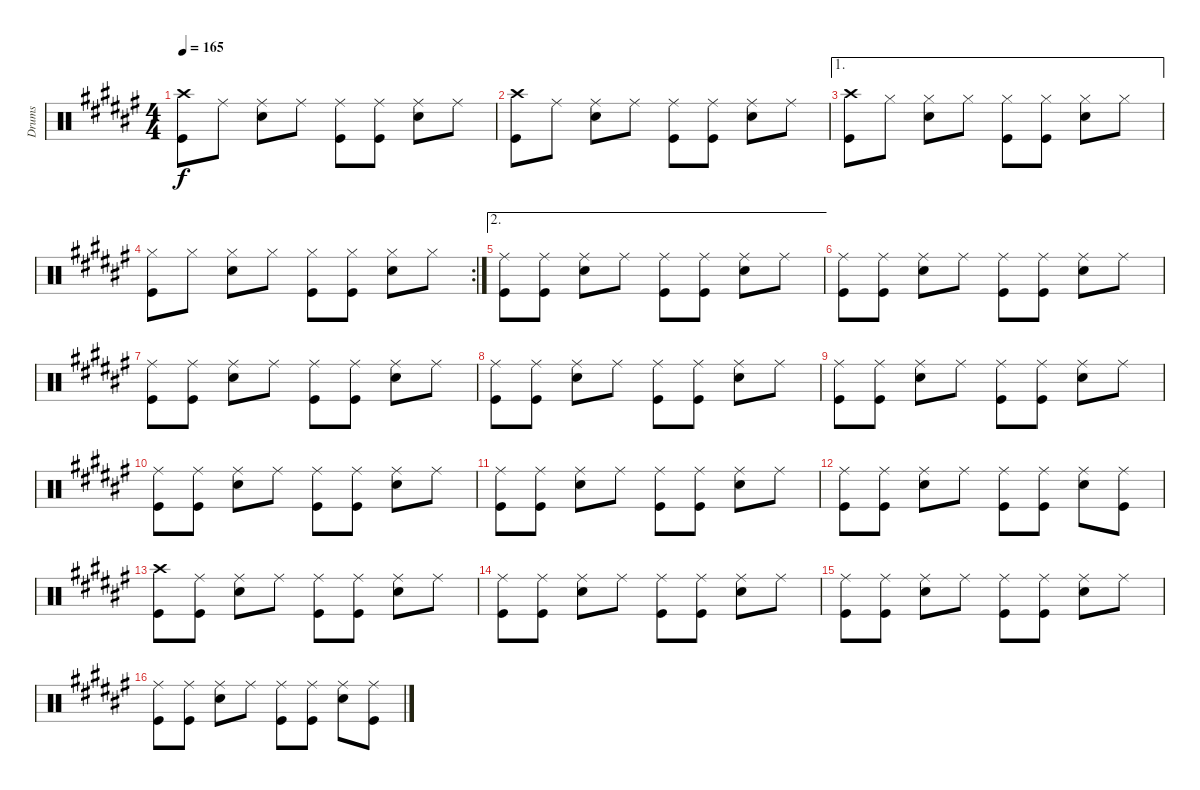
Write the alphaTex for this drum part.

\track ("Drums" "Drums") {instrument percussion}
\staff {score}
\articulation defaults
\ts (4 4)
\tempo 165
\clef neutral
\ks f#
("Crash high (hit)" "Kick (hit)").8{dy f} "Ride (middle)".8 ("Ride (middle)" "Snare (hit) 2").8 "Ride (middle)".8 ("Ride (middle)" "Kick (hit)").8 ("Ride (middle)" "Kick (hit)").8 ("Ride (middle)" "Snare (hit) 2").8 "Ride (middle)".8 |
("Crash high (hit)" "Kick (hit)").8 "Ride (middle)".8 ("Ride (middle)" "Snare (hit) 2").8 "Ride (middle)".8 ("Ride (middle)" "Kick (hit)").8 ("Ride (middle)" "Kick (hit)").8 ("Ride (middle)" "Snare (hit) 2").8 "Ride (middle)".8 |
\ae 1
("Crash high (hit)" "Kick (hit)").8 "Hi-Hat (closed)".8 ("Hi-Hat (closed)" "Snare (hit) 2").8 "Hi-Hat (closed)".8 ("Hi-Hat (closed)" "Kick (hit)").8 ("Hi-Hat (closed)" "Kick (hit)").8 ("Hi-Hat (closed)" "Snare (hit) 2").8 "Hi-Hat (closed)".8 |
\rc 2
("Hi-Hat (closed)" "Kick (hit)").8 "Hi-Hat (closed)".8 ("Hi-Hat (closed)" "Snare (hit) 2").8 "Hi-Hat (closed)".8 ("Hi-Hat (closed)" "Kick (hit)").8 ("Hi-Hat (closed)" "Kick (hit)").8 ("Hi-Hat (closed)" "Snare (hit) 2").8 "Hi-Hat (closed)".8 |
\ae 2
("Ride (middle)" "Kick (hit)").8 ("Ride (middle)" "Kick (hit)").8 ("Ride (middle)" "Snare (hit) 2").8 "Ride (middle)".8 ("Ride (middle)" "Kick (hit)").8 ("Ride (middle)" "Kick (hit)").8 ("Ride (middle)" "Snare (hit) 2").8 "Ride (middle)".8 |
("Ride (middle)" "Kick (hit)").8 ("Ride (middle)" "Kick (hit)").8 ("Ride (middle)" "Snare (hit) 2").8 "Ride (middle)".8 ("Ride (middle)" "Kick (hit)").8 ("Ride (middle)" "Kick (hit)").8 ("Ride (middle)" "Snare (hit) 2").8 "Ride (middle)".8 |
("Ride (middle)" "Kick (hit)").8 ("Ride (middle)" "Kick (hit)").8 ("Ride (middle)" "Snare (hit) 2").8 "Ride (middle)".8 ("Ride (middle)" "Kick (hit)").8 ("Ride (middle)" "Kick (hit)").8 ("Ride (middle)" "Snare (hit) 2").8 "Ride (middle)".8 |
("Ride (middle)" "Kick (hit)").8 ("Ride (middle)" "Kick (hit)").8 ("Ride (middle)" "Snare (hit) 2").8 "Ride (middle)".8 ("Ride (middle)" "Kick (hit)").8 ("Ride (middle)" "Kick (hit)").8 ("Ride (middle)" "Snare (hit) 2").8 "Ride (middle)".8 |
("Ride (middle)" "Kick (hit)").8 ("Ride (middle)" "Kick (hit)").8 ("Ride (middle)" "Snare (hit) 2").8 "Ride (middle)".8 ("Ride (middle)" "Kick (hit)").8 ("Ride (middle)" "Kick (hit)").8 ("Ride (middle)" "Snare (hit) 2").8 "Ride (middle)".8 |
("Ride (middle)" "Kick (hit)").8 ("Ride (middle)" "Kick (hit)").8 ("Ride (middle)" "Snare (hit) 2").8 "Ride (middle)".8 ("Ride (middle)" "Kick (hit)").8 ("Ride (middle)" "Kick (hit)").8 ("Ride (middle)" "Snare (hit) 2").8 "Ride (middle)".8 |
("Ride (middle)" "Kick (hit)").8 ("Ride (middle)" "Kick (hit)").8 ("Ride (middle)" "Snare (hit) 2").8 "Ride (middle)".8 ("Ride (middle)" "Kick (hit)").8 ("Ride (middle)" "Kick (hit)").8 ("Ride (middle)" "Snare (hit) 2").8 "Ride (middle)".8 |
("Ride (middle)" "Kick (hit)").8 ("Ride (middle)" "Kick (hit)").8 ("Ride (middle)" "Snare (hit) 2").8 "Ride (middle)".8 ("Ride (middle)" "Kick (hit)").8 ("Ride (middle)" "Kick (hit)").8 ("Ride (middle)" "Snare (hit) 2").8 ("Ride (middle)" "Kick (hit)").8 |
("Crash high (hit)" "Kick (hit)").8 ("Ride (middle)" "Kick (hit)").8 ("Ride (middle)" "Snare (hit) 2").8 "Ride (middle)".8 ("Ride (middle)" "Kick (hit)").8 ("Ride (middle)" "Kick (hit)").8 ("Ride (middle)" "Snare (hit) 2").8 "Ride (middle)".8 |
("Ride (middle)" "Kick (hit)").8 ("Ride (middle)" "Kick (hit)").8 ("Ride (middle)" "Snare (hit) 2").8 "Ride (middle)".8 ("Ride (middle)" "Kick (hit)").8 ("Ride (middle)" "Kick (hit)").8 ("Ride (middle)" "Snare (hit) 2").8 "Ride (middle)".8 |
("Ride (middle)" "Kick (hit)").8 ("Ride (middle)" "Kick (hit)").8 ("Ride (middle)" "Snare (hit) 2").8 "Ride (middle)".8 ("Ride (middle)" "Kick (hit)").8 ("Ride (middle)" "Kick (hit)").8 ("Ride (middle)" "Snare (hit) 2").8 "Ride (middle)".8 |
("Ride (middle)" "Kick (hit)").8 ("Ride (middle)" "Kick (hit)").8 ("Ride (middle)" "Snare (hit) 2").8 "Ride (middle)".8 ("Ride (middle)" "Kick (hit)").8 ("Ride (middle)" "Kick (hit)").8 ("Ride (middle)" "Snare (hit) 2").8 ("Ride (middle)" "Kick (hit)").8
